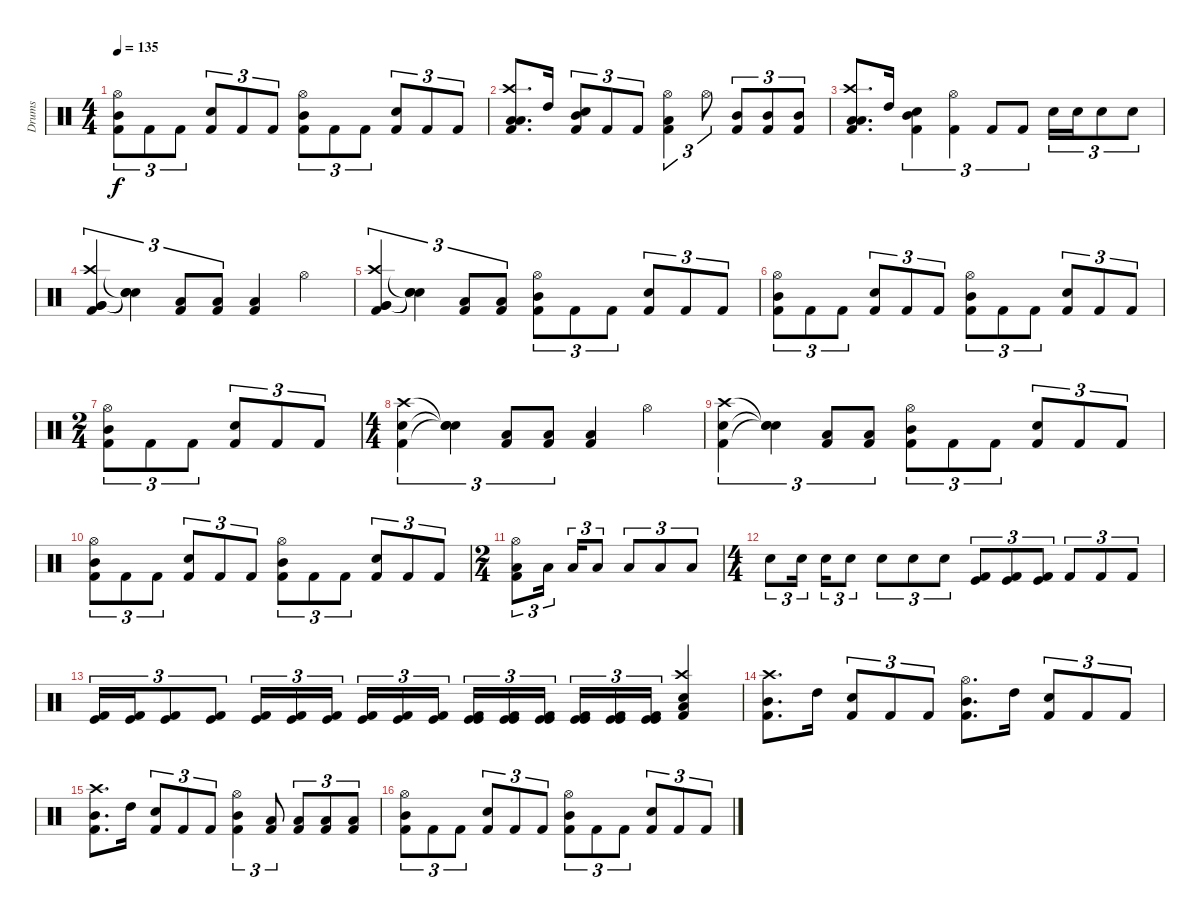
\track ("Drums" "Drums") {instrument percussion}
\staff {score}
\articulation defaults
\ts (4 4)
\tempo 135
\clef neutral
\ks c
("Hi-Hat (open)" "Mid Tom (hit)" "Kick (hit) 2").8{tu (3 2) dy f} "Kick (hit) 2".8{tu (3 2)} "Kick (hit) 2".8{tu (3 2)} ("Snare (hit) 2" "Kick (hit) 2").8{tu (3 2)} "Kick (hit) 2".8{tu (3 2)} "Kick (hit) 2".8{tu (3 2)} ("Hi-Hat (open)" "Mid Tom (hit)" "Kick (hit) 2").8{tu (3 2)} "Kick (hit) 2".8{tu (3 2)} "Kick (hit) 2".8{tu (3 2)} ("Snare (hit) 2" "Kick (hit) 2").8{tu (3 2)} "Kick (hit) 2".8{tu (3 2)} "Kick (hit) 2".8{tu (3 2)} |
("Crash high (hit)" "Low Tom (hit)" "Low Tom (hit)" "Kick (hit) 2").8{d} "High Tom (hit)".16 ("Mid Tom (hit)" "Snare (hit) 2" "Kick (hit) 2").8{tu (3 2)} "Kick (hit) 2".8{tu (3 2)} "Kick (hit) 2".8{tu (3 2)} ("Hi-Hat (open)" "Low Tom (hit)" "Kick (hit) 2").4{tu (3 2)} "Hi-Hat (open)".8{tu (3 2)} ("Mid Tom (hit)" "Kick (hit) 2").8{tu (3 2)} ("Mid Tom (hit)" "Kick (hit) 2").8{tu (3 2)} ("Mid Tom (hit)" "Kick (hit) 2").8{tu (3 2)} |
("Crash high (hit)" "Low Tom (hit)" "Low Tom (hit)" "Kick (hit) 2").8{d} "High Tom (hit)".16 ("Mid Tom (hit)" "Snare (hit) 2" "Kick (hit) 2").4{tu (3 2)} ("Hi-Hat (open)" "Kick (hit) 2").4{tu (3 2)} "Kick (hit) 2".8{tu (3 2)} "Kick (hit) 2".8{tu (3 2)} "Snare (hit) 2".16{tu (3 2)} "Snare (hit) 2".16{tu (3 2)} "Snare (hit) 2".8{tu (3 2)} "Snare (hit) 2".8{tu (3 2)} |
("Crash high (hit)" "Very Low Tom (hit)" "Very Low Tom (hit)" "Kick (hit) 2").4{tu (3 2)} ("Snare (hit)"{t} "Snare (hit)"{t} "Snare (hit)"{t}).4{tu (3 2)} ("Low Tom (hit)" "Kick (hit) 2").8{tu (3 2)} ("Low Tom (hit)" "Kick (hit) 2").8{tu (3 2)} ("Low Tom (hit)" "Kick (hit) 2").4 "Hi-Hat (open)".4 |
("Crash high (hit)" "Very Low Tom (hit)" "Very Low Tom (hit)" "Kick (hit) 2").4{tu (3 2)} ("Snare (hit)"{t} "Snare (hit)"{t} "Snare (hit)"{t}).4{tu (3 2)} ("Low Tom (hit)" "Kick (hit) 2").8{tu (3 2)} ("Low Tom (hit)" "Kick (hit) 2").8{tu (3 2)} ("Hi-Hat (open)" "Mid Tom (hit)" "Kick (hit) 2").8{tu (3 2)} "Kick (hit) 2".8{tu (3 2)} "Kick (hit) 2".8{tu (3 2)} ("Snare (hit) 2" "Kick (hit) 2").8{tu (3 2)} "Kick (hit) 2".8{tu (3 2)} "Kick (hit) 2".8{tu (3 2)} |
("Hi-Hat (open)" "Mid Tom (hit)" "Kick (hit) 2").8{tu (3 2)} "Kick (hit) 2".8{tu (3 2)} "Kick (hit) 2".8{tu (3 2)} ("Snare (hit) 2" "Kick (hit) 2").8{tu (3 2)} "Kick (hit) 2".8{tu (3 2)} "Kick (hit) 2".8{tu (3 2)} ("Hi-Hat (open)" "Mid Tom (hit)" "Kick (hit) 2").8{tu (3 2)} "Kick (hit) 2".8{tu (3 2)} "Kick (hit) 2".8{tu (3 2)} ("Snare (hit) 2" "Kick (hit) 2").8{tu (3 2)} "Kick (hit) 2".8{tu (3 2)} "Kick (hit) 2".8{tu (3 2)} |
\ts (2 4)
("Hi-Hat (open)" "Mid Tom (hit)" "Kick (hit) 2").8{tu (3 2)} "Kick (hit) 2".8{tu (3 2)} "Kick (hit) 2".8{tu (3 2)} ("Snare (hit) 2" "Kick (hit) 2").8{tu (3 2)} "Kick (hit) 2".8{tu (3 2)} "Kick (hit) 2".8{tu (3 2)} |
\ts (4 4)
("Crash high (hit)" "Snare (hit) 2" "Kick (hit) 2").4{tu (3 2)} ("Snare (hit)"{t} "Snare (hit)"{t} "Snare (hit)"{t}).4{tu (3 2)} ("Low Tom (hit)" "Kick (hit) 2").8{tu (3 2)} ("Low Tom (hit)" "Kick (hit) 2").8{tu (3 2)} ("Low Tom (hit)" "Kick (hit) 2").4 "Hi-Hat (open)".4 |
("Crash high (hit)" "Snare (hit) 2" "Kick (hit) 2").4{tu (3 2)} ("Snare (hit)"{t} "Snare (hit)"{t} "Snare (hit)"{t}).4{tu (3 2)} ("Low Tom (hit)" "Kick (hit) 2").8{tu (3 2)} ("Low Tom (hit)" "Kick (hit) 2").8{tu (3 2)} ("Hi-Hat (open)" "Mid Tom (hit)" "Kick (hit) 2").8{tu (3 2)} "Kick (hit) 2".8{tu (3 2)} "Kick (hit) 2".8{tu (3 2)} ("Snare (hit) 2" "Kick (hit) 2").8{tu (3 2)} "Kick (hit) 2".8{tu (3 2)} "Kick (hit) 2".8{tu (3 2)} |
("Hi-Hat (open)" "Mid Tom (hit)" "Kick (hit) 2").8{tu (3 2)} "Kick (hit) 2".8{tu (3 2)} "Kick (hit) 2".8{tu (3 2)} ("Snare (hit) 2" "Kick (hit) 2").8{tu (3 2)} "Kick (hit) 2".8{tu (3 2)} "Kick (hit) 2".8{tu (3 2)} ("Hi-Hat (open)" "Mid Tom (hit)" "Kick (hit) 2").8{tu (3 2)} "Kick (hit) 2".8{tu (3 2)} "Kick (hit) 2".8{tu (3 2)} ("Snare (hit) 2" "Kick (hit) 2").8{tu (3 2)} "Kick (hit) 2".8{tu (3 2)} "Kick (hit) 2".8{tu (3 2)} |
\ts (2 4)
("Hi-Hat (open)" "Low Tom (hit)" "Kick (hit) 2").8{tu (3 2)} "Low Tom (hit)".16{tu (3 2)} "Low Tom (hit)".16{tu (3 2)} "Low Tom (hit)".8{tu (3 2)} "Low Tom (hit)".8{tu (3 2)} "Low Tom (hit)".8{tu (3 2)} "Low Tom (hit)".8{tu (3 2)} |
\ts (4 4)
"Snare (hit) 2".8{tu (3 2)} "Snare (hit) 2".16{tu (3 2)} "Snare (hit) 2".16{tu (3 2)} "Snare (hit) 2".8{tu (3 2)} "Snare (hit) 2".8{tu (3 2)} "Snare (hit) 2".8{tu (3 2)} "Snare (hit) 2".8{tu (3 2)} ("Kick (hit)" "Kick (hit) 2").8{tu (3 2)} ("Kick (hit)" "Kick (hit) 2").8{tu (3 2)} ("Kick (hit)" "Kick (hit) 2").8{tu (3 2)} "Kick (hit) 2".8{tu (3 2)} "Kick (hit) 2".8{tu (3 2)} "Kick (hit) 2".8{tu (3 2)} |
("Kick (hit)" "Kick (hit) 2").16{tu (3 2)} ("Kick (hit)" "Kick (hit) 2").16{tu (3 2)} ("Kick (hit)" "Kick (hit) 2").8{tu (3 2)} ("Kick (hit)" "Kick (hit) 2").8{tu (3 2)} ("Kick (hit)" "Kick (hit) 2").16{tu (3 2)} ("Kick (hit)" "Kick (hit) 2").16{tu (3 2)} ("Kick (hit)" "Kick (hit) 2").16{tu (3 2)} ("Kick (hit)" "Kick (hit) 2").16{tu (3 2)} ("Kick (hit)" "Kick (hit) 2").16{tu (3 2)} ("Kick (hit)" "Kick (hit) 2").16{tu (3 2)} ("Kick (hit)" "Kick (hit)" "Kick (hit) 2").16{tu (3 2)} ("Kick (hit)" "Kick (hit)" "Kick (hit) 2").16{tu (3 2)} ("Kick (hit)" "Kick (hit)" "Kick (hit) 2").16{tu (3 2)} ("Kick (hit)" "Kick (hit)" "Kick (hit) 2").16{tu (3 2)} ("Kick (hit)" "Kick (hit)" "Kick (hit) 2").16{tu (3 2)} ("Kick (hit)" "Kick (hit)" "Kick (hit) 2").16{tu (3 2)} ("Crash high (hit)" "Snare (hit) 2" "Low Floor Tom (hit)" "Kick (hit) 2").4 |
("Crash high (hit)" "Mid Tom (hit)" "Kick (hit) 2").8{d} "High Tom (hit)".16 ("Snare (hit) 2" "Kick (hit) 2").8{tu (3 2)} "Kick (hit) 2".8{tu (3 2)} "Kick (hit) 2".8{tu (3 2)} ("Hi-Hat (open)" "Mid Tom (hit)" "Kick (hit) 2").8{d} "High Tom (hit)".16 ("Snare (hit) 2" "Kick (hit) 2").8{tu (3 2)} "Kick (hit) 2".8{tu (3 2)} "Kick (hit) 2".8{tu (3 2)} |
("Crash high (hit)" "Mid Tom (hit)" "Kick (hit) 2").8{d} "High Tom (hit)".16 ("Snare (hit) 2" "Kick (hit) 2").8{tu (3 2)} "Kick (hit) 2".8{tu (3 2)} "Kick (hit) 2".8{tu (3 2)} ("Hi-Hat (open)" "Mid Tom (hit)" "Kick (hit) 2").4{tu (3 2)} ("Low Tom (hit)" "Kick (hit) 2").8{tu (3 2)} ("Low Tom (hit)" "Kick (hit) 2").8{tu (3 2)} ("Low Tom (hit)" "Kick (hit) 2").8{tu (3 2)} ("Low Tom (hit)" "Kick (hit) 2").8{tu (3 2)} |
("Hi-Hat (open)" "Mid Tom (hit)" "Kick (hit) 2").8{tu (3 2)} "Kick (hit) 2".8{tu (3 2)} "Kick (hit) 2".8{tu (3 2)} ("Snare (hit) 2" "Kick (hit) 2").8{tu (3 2)} "Kick (hit) 2".8{tu (3 2)} "Kick (hit) 2".8{tu (3 2)} ("Hi-Hat (open)" "Mid Tom (hit)" "Kick (hit) 2").8{tu (3 2)} "Kick (hit) 2".8{tu (3 2)} "Kick (hit) 2".8{tu (3 2)} ("Snare (hit) 2" "Kick (hit) 2").8{tu (3 2)} "Kick (hit) 2".8{tu (3 2)} "Kick (hit) 2".8{tu (3 2)}
